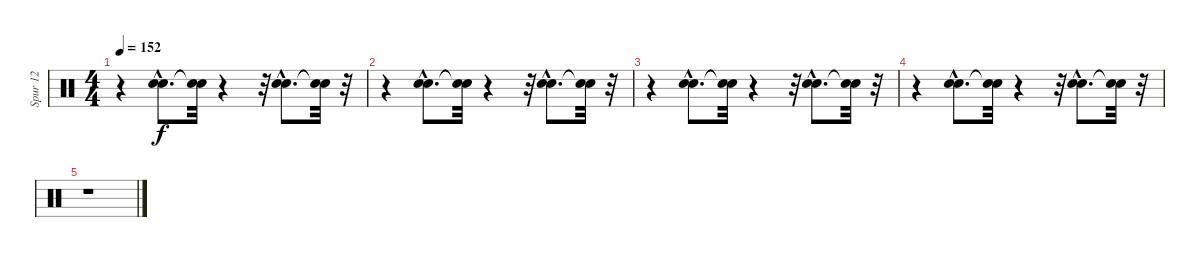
\track ("Spur 12" "Spur 12") {instrument percussion}
\staff {score}
\articulation defaults
\ts (4 4)
\tempo 152
\clef neutral
\ks c
r.4{dy f} ("Hand Clap (hit)"{hac} "Electric Snare (hit)"{hac}).8{d} ("Snare (hit)"{t} "Snare (hit)"{t}).32 r.4 r.32 ("Hand Clap (hit)"{hac} "Electric Snare (hit)"{hac}).8{d} ("Snare (hit)"{t} "Snare (hit)"{t}).32 r.32 |
r.4 ("Hand Clap (hit)"{hac} "Electric Snare (hit)"{hac}).8{d} ("Snare (hit)"{t} "Snare (hit)"{t}).32 r.4 r.32 ("Hand Clap (hit)"{hac} "Electric Snare (hit)"{hac}).8{d} ("Snare (hit)"{t} "Snare (hit)"{t}).32 r.32 |
r.4 ("Hand Clap (hit)"{hac} "Electric Snare (hit)"{hac}).8{d} ("Snare (hit)"{t} "Snare (hit)"{t}).32 r.4 r.32 ("Hand Clap (hit)"{hac} "Electric Snare (hit)"{hac}).8{d} ("Snare (hit)"{t} "Snare (hit)"{t}).32 r.32 |
r.4 ("Hand Clap (hit)"{hac} "Electric Snare (hit)"{hac}).8{d} ("Snare (hit)"{t} "Snare (hit)"{t}).32 r.4 r.32 ("Hand Clap (hit)"{hac} "Electric Snare (hit)"{hac}).8{d} ("Snare (hit)"{t} "Snare (hit)"{t}).32 r.32 |
r.1
